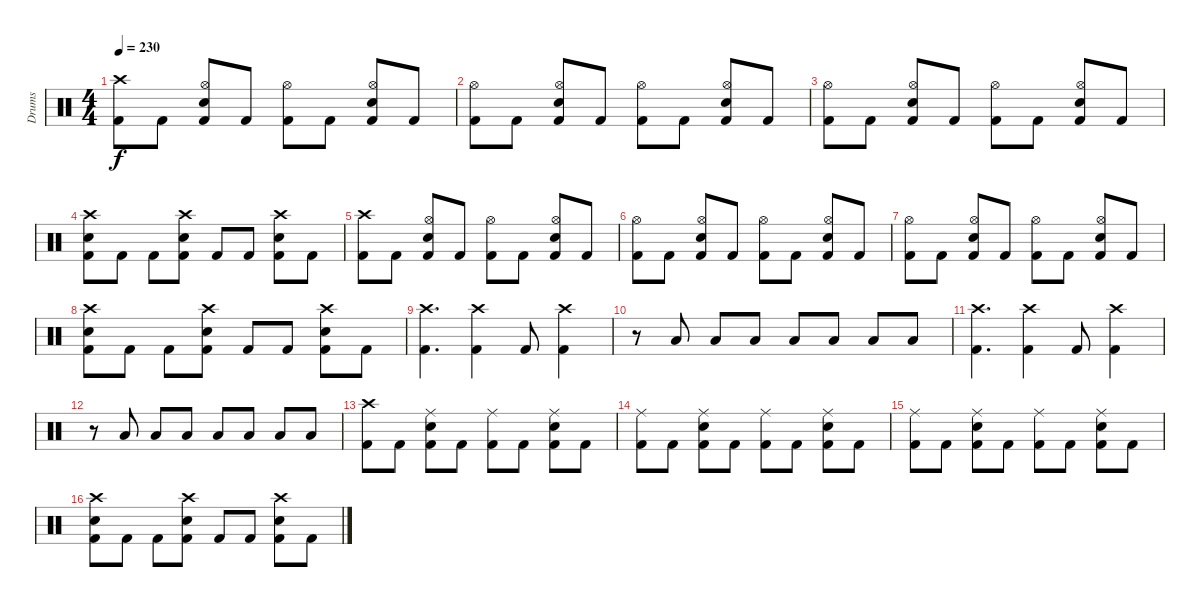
\track ("Drums" "Drums") {instrument percussion}
\staff {score}
\articulation defaults
\ts (4 4)
\tempo 230
\clef neutral
\ks c
("Crash high (hit)" "Kick (hit) 2").8{dy f} "Kick (hit) 2".8 ("Hi-Hat (open)" "Electric Snare (hit)" "Kick (hit) 2").8 "Kick (hit) 2".8 ("Hi-Hat (open)" "Kick (hit) 2").8 "Kick (hit) 2".8 ("Hi-Hat (open)" "Electric Snare (hit)" "Kick (hit) 2").8 "Kick (hit) 2".8 |
("Hi-Hat (open)" "Kick (hit) 2").8 "Kick (hit) 2".8 ("Hi-Hat (open)" "Electric Snare (hit)" "Kick (hit) 2").8 "Kick (hit) 2".8 ("Hi-Hat (open)" "Kick (hit) 2").8 "Kick (hit) 2".8 ("Hi-Hat (open)" "Electric Snare (hit)" "Kick (hit) 2").8 "Kick (hit) 2".8 |
("Hi-Hat (open)" "Kick (hit) 2").8 "Kick (hit) 2".8 ("Hi-Hat (open)" "Electric Snare (hit)" "Kick (hit) 2").8 "Kick (hit) 2".8 ("Hi-Hat (open)" "Kick (hit) 2").8 "Kick (hit) 2".8 ("Hi-Hat (open)" "Electric Snare (hit)" "Kick (hit) 2").8 "Kick (hit) 2".8 |
("Crash high (hit)" "Electric Snare (hit)" "Kick (hit) 2").8 "Kick (hit) 2".8 "Kick (hit) 2".8 ("Crash high (hit)" "Electric Snare (hit)" "Kick (hit) 2").8 "Kick (hit) 2".8 "Kick (hit) 2".8 ("Crash high (hit)" "Electric Snare (hit)" "Kick (hit) 2").8 "Kick (hit) 2".8 |
("Crash high (hit)" "Kick (hit) 2").8 "Kick (hit) 2".8 ("Hi-Hat (open)" "Electric Snare (hit)" "Kick (hit) 2").8 "Kick (hit) 2".8 ("Hi-Hat (open)" "Kick (hit) 2").8 "Kick (hit) 2".8 ("Hi-Hat (open)" "Electric Snare (hit)" "Kick (hit) 2").8 "Kick (hit) 2".8 |
("Hi-Hat (open)" "Kick (hit) 2").8 "Kick (hit) 2".8 ("Hi-Hat (open)" "Electric Snare (hit)" "Kick (hit) 2").8 "Kick (hit) 2".8 ("Hi-Hat (open)" "Kick (hit) 2").8 "Kick (hit) 2".8 ("Hi-Hat (open)" "Electric Snare (hit)" "Kick (hit) 2").8 "Kick (hit) 2".8 |
("Hi-Hat (open)" "Kick (hit) 2").8 "Kick (hit) 2".8 ("Hi-Hat (open)" "Electric Snare (hit)" "Kick (hit) 2").8 "Kick (hit) 2".8 ("Hi-Hat (open)" "Kick (hit) 2").8 "Kick (hit) 2".8 ("Hi-Hat (open)" "Electric Snare (hit)" "Kick (hit) 2").8 "Kick (hit) 2".8 |
("Crash high (hit)" "Electric Snare (hit)" "Kick (hit) 2").8 "Kick (hit) 2".8 "Kick (hit) 2".8 ("Crash high (hit)" "Electric Snare (hit)" "Kick (hit) 2").8 "Kick (hit) 2".8 "Kick (hit) 2".8 ("Crash high (hit)" "Electric Snare (hit)" "Kick (hit) 2").8 "Kick (hit) 2".8 |
("Crash high (hit)" "Kick (hit) 2").4{d} ("Crash high (hit)" "Kick (hit) 2").4 "Kick (hit) 2".8 ("Crash high (hit)" "Kick (hit) 2").4 |
r.8 "Low Tom (hit)".8 "Low Tom (hit)".8 "Low Tom (hit)".8 "Low Tom (hit)".8 "Low Tom (hit)".8 "Low Tom (hit)".8 "Low Tom (hit)".8 |
("Crash high (hit)" "Kick (hit) 2").4{d} ("Crash high (hit)" "Kick (hit) 2").4 "Kick (hit) 2".8 ("Crash high (hit)" "Kick (hit) 2").4 |
r.8 "Low Tom (hit)".8 "Low Tom (hit)".8 "Low Tom (hit)".8 "Low Tom (hit)".8 "Low Tom (hit)".8 "Low Tom (hit)".8 "Low Tom (hit)".8 |
("Crash high (hit)" "Kick (hit) 2").8 "Kick (hit) 2".8 ("Ride (middle)" "Electric Snare (hit)" "Kick (hit) 2").8 "Kick (hit) 2".8 ("Ride (middle)" "Kick (hit) 2").8 "Kick (hit) 2".8 ("Ride (middle)" "Electric Snare (hit)" "Kick (hit) 2").8 "Kick (hit) 2".8 |
("Ride (middle)" "Kick (hit) 2").8 "Kick (hit) 2".8 ("Ride (middle)" "Electric Snare (hit)" "Kick (hit) 2").8 "Kick (hit) 2".8 ("Ride (middle)" "Kick (hit) 2").8 "Kick (hit) 2".8 ("Ride (middle)" "Electric Snare (hit)" "Kick (hit) 2").8 "Kick (hit) 2".8 |
("Ride (middle)" "Kick (hit) 2").8 "Kick (hit) 2".8 ("Ride (middle)" "Electric Snare (hit)" "Kick (hit) 2").8 "Kick (hit) 2".8 ("Ride (middle)" "Kick (hit) 2").8 "Kick (hit) 2".8 ("Ride (middle)" "Electric Snare (hit)" "Kick (hit) 2").8 "Kick (hit) 2".8 |
("Crash high (hit)" "Electric Snare (hit)" "Kick (hit) 2").8 "Kick (hit) 2".8 "Kick (hit) 2".8 ("Crash high (hit)" "Electric Snare (hit)" "Kick (hit) 2").8 "Kick (hit) 2".8 "Kick (hit) 2".8 ("Crash high (hit)" "Electric Snare (hit)" "Kick (hit) 2").8 "Kick (hit) 2".8
